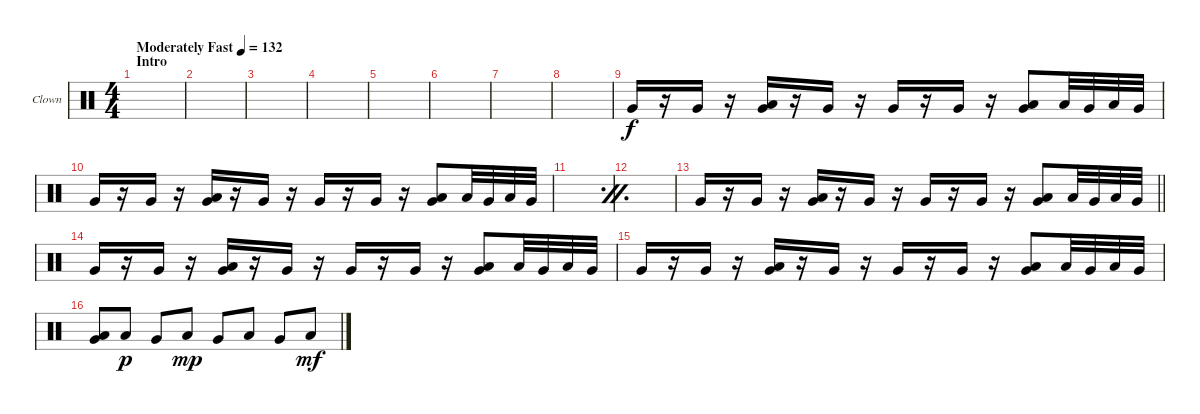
\bracketExtendMode groupsimilarinstruments
\firstSystemTrackNameOrientation horizontal
\otherSystemsTrackNameOrientation horizontal
\track ("Clown" "Clown") {instrument percussion}
\staff {score}
\articulation defaults
\ts (4 4)
\beaming (8 2 2 2 2)
\section ("" "Intro")
\tempo (132 "Moderately Fast")
\clef neutral
\ks c
|
|
|
|
|
|
|
|
"Very Low Tom (hit)".16 r.16 "Very Low Tom (hit)".16 r.16 ("Very Low Tom (hit)" "Low Tom (hit)").16 r.16 "Very Low Tom (hit)".16 r.16 "Very Low Tom (hit)".16 r.16 "Very Low Tom (hit)".16 r.16 ("Very Low Tom (hit)" "Low Tom (hit)").8 "Low Tom (hit)".32 "Very Low Tom (hit)".32 "Low Tom (hit)".32 "Very Low Tom (hit)".32 |
"Very Low Tom (hit)".16 r.16 "Very Low Tom (hit)".16 r.16 ("Very Low Tom (hit)" "Low Tom (hit)").16 r.16 "Very Low Tom (hit)".16 r.16 "Very Low Tom (hit)".16 r.16 "Very Low Tom (hit)".16 r.16 ("Very Low Tom (hit)" "Low Tom (hit)").8 "Low Tom (hit)".32 "Very Low Tom (hit)".32 "Low Tom (hit)".32 "Very Low Tom (hit)".32 |
\simile firstofdouble
|
\simile secondofdouble
|
\simile none
\barLineRight lightlight "Very Low Tom (hit)".16
r.16 "Very Low Tom (hit)".16 r.16 ("Very Low Tom (hit)" "Low Tom (hit)").16 r.16 "Very Low Tom (hit)".16 r.16 "Very Low Tom (hit)".16 r.16 "Very Low Tom (hit)".16 r.16 ("Very Low Tom (hit)" "Low Tom (hit)").8 "Low Tom (hit)".32 "Very Low Tom (hit)".32 "Low Tom (hit)".32 "Very Low Tom (hit)".32 |
"Very Low Tom (hit)".16 r.16 "Very Low Tom (hit)".16 r.16 ("Very Low Tom (hit)" "Low Tom (hit)").16 r.16 "Very Low Tom (hit)".16 r.16 "Very Low Tom (hit)".16 r.16 "Very Low Tom (hit)".16 r.16 ("Very Low Tom (hit)" "Low Tom (hit)").8 "Low Tom (hit)".32 "Very Low Tom (hit)".32 "Low Tom (hit)".32 "Very Low Tom (hit)".32 |
"Very Low Tom (hit)".16 r.16 "Very Low Tom (hit)".16 r.16 ("Very Low Tom (hit)" "Low Tom (hit)").16 r.16 "Very Low Tom (hit)".16 r.16 "Very Low Tom (hit)".16 r.16 "Very Low Tom (hit)".16 r.16 ("Very Low Tom (hit)" "Low Tom (hit)").8 "Low Tom (hit)".32 "Very Low Tom (hit)".32 "Low Tom (hit)".32 "Very Low Tom (hit)".32 |
("Very Low Tom (hit)" "Low Tom (hit)").8 "Low Tom (hit)".8{dy p} "Very Low Tom (hit)".8 "Low Tom (hit)".8{dy mp} "Very Low Tom (hit)".8 "Low Tom (hit)".8 "Very Low Tom (hit)".8 "Low Tom (hit)".8{dy mf}
